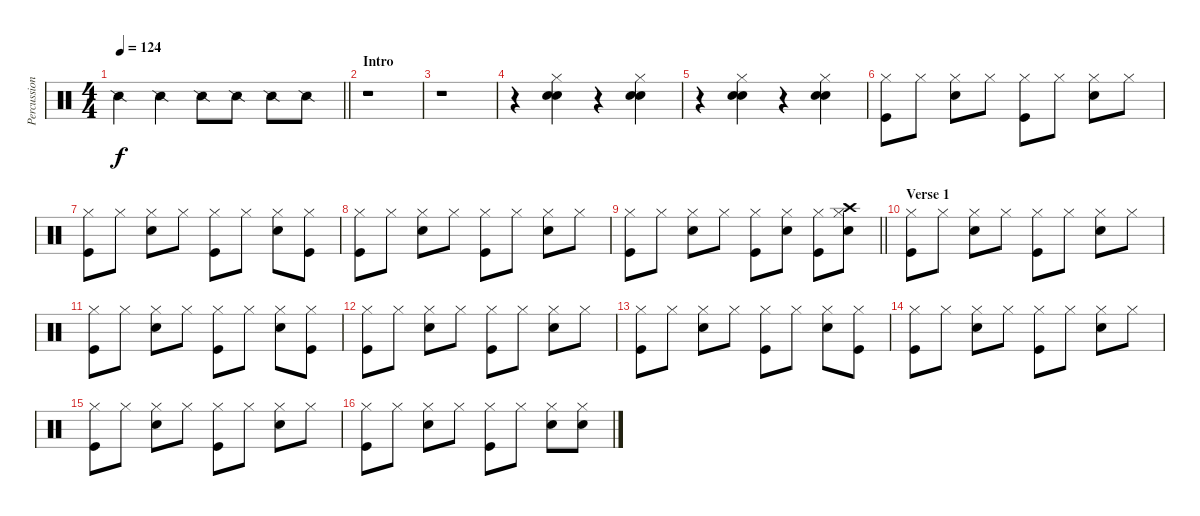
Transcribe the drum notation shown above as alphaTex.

\track ("Percussion" "Percussion") {instrument percussion}
\staff {score}
\articulation defaults
\ts (4 4)
\tempo 124
\clef neutral
\barLineRight lightlight
\ks c "Snare (side stick) 2".4{dy f} "Snare (side stick) 2".4 "Snare (side stick) 2".8 "Snare (side stick) 2".8 "Snare (side stick) 2".8 "Snare (side stick) 2".8
|
\section ("" "Intro")
r.1 |
r.1 |
r.4 ("Snare (hit) 2" "Electric Snare (hit)" "Hi-Hat (closed)").4 r.4 ("Snare (hit) 2" "Electric Snare (hit)" "Hi-Hat (closed)").4 |
r.4 ("Snare (hit) 2" "Electric Snare (hit)" "Hi-Hat (closed)").4 r.4 ("Snare (hit) 2" "Electric Snare (hit)" "Hi-Hat (closed)").4 |
("Hi-Hat (closed)" "Kick (hit)").8 "Hi-Hat (closed)".8 ("Hi-Hat (closed)" "Electric Snare (hit)").8 "Hi-Hat (closed)".8 ("Hi-Hat (closed)" "Kick (hit)").8 "Hi-Hat (closed)".8 ("Hi-Hat (closed)" "Electric Snare (hit)").8 "Hi-Hat (closed)".8 |
("Hi-Hat (closed)" "Kick (hit)").8 "Hi-Hat (closed)".8 ("Hi-Hat (closed)" "Electric Snare (hit)").8 "Hi-Hat (closed)".8 ("Hi-Hat (closed)" "Kick (hit)").8 "Hi-Hat (closed)".8 ("Hi-Hat (closed)" "Electric Snare (hit)").8 ("Hi-Hat (closed)" "Kick (hit)").8 |
("Hi-Hat (closed)" "Kick (hit)").8 "Hi-Hat (closed)".8 ("Hi-Hat (closed)" "Electric Snare (hit)").8 "Hi-Hat (closed)".8 ("Hi-Hat (closed)" "Kick (hit)").8 "Hi-Hat (closed)".8 ("Hi-Hat (closed)" "Electric Snare (hit)").8 "Hi-Hat (closed)".8 |
\barLineRight lightlight
("Hi-Hat (closed)" "Kick (hit)").8 "Hi-Hat (closed)".8 ("Hi-Hat (closed)" "Electric Snare (hit)").8 "Hi-Hat (closed)".8 ("Hi-Hat (closed)" "Kick (hit)").8 ("Hi-Hat (closed)" "Electric Snare (hit)").8 ("Hi-Hat (closed)" "Kick (hit)").8 ("Hi-Hat (closed)" "Crash high (hit)" "Electric Snare (hit)").8 |
\section ("" "Verse 1")
("Hi-Hat (closed)" "Kick (hit)").8 "Hi-Hat (closed)".8 ("Hi-Hat (closed)" "Electric Snare (hit)").8 "Hi-Hat (closed)".8 ("Hi-Hat (closed)" "Kick (hit)").8 "Hi-Hat (closed)".8 ("Hi-Hat (closed)" "Electric Snare (hit)").8 "Hi-Hat (closed)".8 |
("Hi-Hat (closed)" "Kick (hit)").8 "Hi-Hat (closed)".8 ("Hi-Hat (closed)" "Electric Snare (hit)").8 "Hi-Hat (closed)".8 ("Hi-Hat (closed)" "Kick (hit)").8 "Hi-Hat (closed)".8 ("Hi-Hat (closed)" "Electric Snare (hit)").8 ("Hi-Hat (closed)" "Kick (hit)").8 |
("Hi-Hat (closed)" "Kick (hit)").8 "Hi-Hat (closed)".8 ("Hi-Hat (closed)" "Electric Snare (hit)").8 "Hi-Hat (closed)".8 ("Hi-Hat (closed)" "Kick (hit)").8 "Hi-Hat (closed)".8 ("Hi-Hat (closed)" "Electric Snare (hit)").8 "Hi-Hat (closed)".8 |
("Hi-Hat (closed)" "Kick (hit)").8 "Hi-Hat (closed)".8 ("Hi-Hat (closed)" "Electric Snare (hit)").8 "Hi-Hat (closed)".8 ("Hi-Hat (closed)" "Kick (hit)").8 "Hi-Hat (closed)".8 ("Hi-Hat (closed)" "Electric Snare (hit)").8 ("Hi-Hat (closed)" "Kick (hit)").8 |
("Hi-Hat (closed)" "Kick (hit)").8 "Hi-Hat (closed)".8 ("Hi-Hat (closed)" "Electric Snare (hit)").8 "Hi-Hat (closed)".8 ("Hi-Hat (closed)" "Kick (hit)").8 "Hi-Hat (closed)".8 ("Hi-Hat (closed)" "Electric Snare (hit)").8 "Hi-Hat (closed)".8 |
("Hi-Hat (closed)" "Kick (hit)").8 "Hi-Hat (closed)".8 ("Hi-Hat (closed)" "Electric Snare (hit)").8 "Hi-Hat (closed)".8 ("Hi-Hat (closed)" "Kick (hit)").8 "Hi-Hat (closed)".8 ("Hi-Hat (closed)" "Electric Snare (hit)").8 "Hi-Hat (closed)".8 |
("Hi-Hat (closed)" "Kick (hit)").8 "Hi-Hat (closed)".8 ("Hi-Hat (closed)" "Electric Snare (hit)").8 "Hi-Hat (closed)".8 ("Hi-Hat (closed)" "Kick (hit)").8 "Hi-Hat (closed)".8 ("Hi-Hat (closed)" "Electric Snare (hit)").8 ("Hi-Hat (closed)" "Electric Snare (hit)").8
